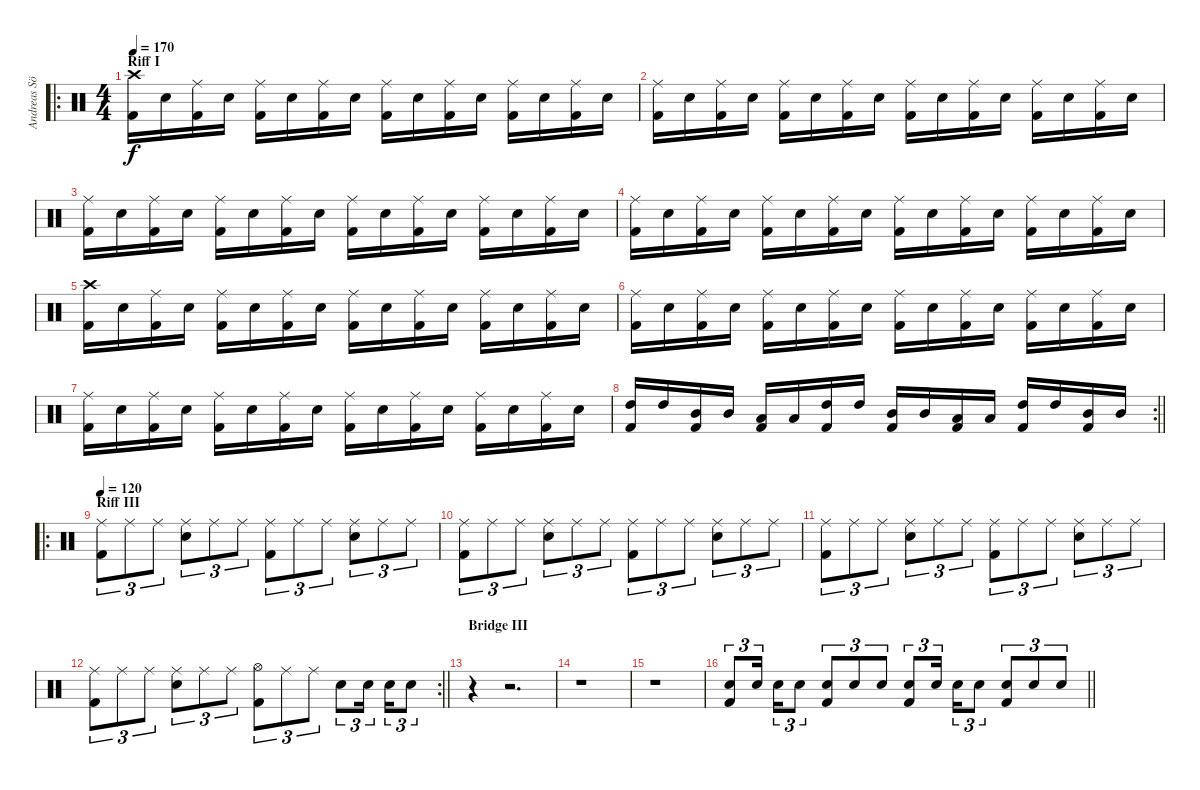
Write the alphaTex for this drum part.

\track ("Andreas Söderlund" "Andreas Sö") {instrument percussion}
\staff {score}
\articulation defaults
\ro
\ts (4 4)
\section ("" "Riff I")
\tempo 170
\clef neutral
\ks c
("Crash high (hit)" "Kick (hit) 2").16{dy f} "Electric Snare (hit)".16 ("Ride (middle)" "Kick (hit) 2").16 "Electric Snare (hit)".16 ("Ride (middle)" "Kick (hit) 2").16 "Electric Snare (hit)".16 ("Ride (middle)" "Kick (hit) 2").16 "Electric Snare (hit)".16 ("Ride (middle)" "Kick (hit) 2").16 "Electric Snare (hit)".16 ("Ride (middle)" "Kick (hit) 2").16 "Electric Snare (hit)".16 ("Ride (middle)" "Kick (hit) 2").16 "Electric Snare (hit)".16 ("Ride (middle)" "Kick (hit) 2").16 "Electric Snare (hit)".16 |
("Ride (middle)" "Kick (hit) 2").16 "Electric Snare (hit)".16 ("Ride (middle)" "Kick (hit) 2").16 "Electric Snare (hit)".16 ("Ride (middle)" "Kick (hit) 2").16 "Electric Snare (hit)".16 ("Ride (middle)" "Kick (hit) 2").16 "Electric Snare (hit)".16 ("Ride (middle)" "Kick (hit) 2").16 "Electric Snare (hit)".16 ("Ride (middle)" "Kick (hit) 2").16 "Electric Snare (hit)".16 ("Ride (middle)" "Kick (hit) 2").16 "Electric Snare (hit)".16 ("Ride (middle)" "Kick (hit) 2").16 "Electric Snare (hit)".16 |
("Ride (middle)" "Kick (hit) 2").16 "Electric Snare (hit)".16 ("Ride (middle)" "Kick (hit) 2").16 "Electric Snare (hit)".16 ("Ride (middle)" "Kick (hit) 2").16 "Electric Snare (hit)".16 ("Ride (middle)" "Kick (hit) 2").16 "Electric Snare (hit)".16 ("Ride (middle)" "Kick (hit) 2").16 "Electric Snare (hit)".16 ("Ride (middle)" "Kick (hit) 2").16 "Electric Snare (hit)".16 ("Ride (middle)" "Kick (hit) 2").16 "Electric Snare (hit)".16 ("Ride (middle)" "Kick (hit) 2").16 "Electric Snare (hit)".16 |
("Ride (middle)" "Kick (hit) 2").16 "Electric Snare (hit)".16 ("Ride (middle)" "Kick (hit) 2").16 "Electric Snare (hit)".16 ("Ride (middle)" "Kick (hit) 2").16 "Electric Snare (hit)".16 ("Ride (middle)" "Kick (hit) 2").16 "Electric Snare (hit)".16 ("Ride (middle)" "Kick (hit) 2").16 "Electric Snare (hit)".16 ("Ride (middle)" "Kick (hit) 2").16 "Electric Snare (hit)".16 ("Ride (middle)" "Kick (hit) 2").16 "Electric Snare (hit)".16 ("Ride (middle)" "Kick (hit) 2").16 "Electric Snare (hit)".16 |
("Crash high (hit)" "Kick (hit) 2").16 "Electric Snare (hit)".16 ("Ride (middle)" "Kick (hit) 2").16 "Electric Snare (hit)".16 ("Ride (middle)" "Kick (hit) 2").16 "Electric Snare (hit)".16 ("Ride (middle)" "Kick (hit) 2").16 "Electric Snare (hit)".16 ("Ride (middle)" "Kick (hit) 2").16 "Electric Snare (hit)".16 ("Ride (middle)" "Kick (hit) 2").16 "Electric Snare (hit)".16 ("Ride (middle)" "Kick (hit) 2").16 "Electric Snare (hit)".16 ("Ride (middle)" "Kick (hit) 2").16 "Electric Snare (hit)".16 |
("Ride (middle)" "Kick (hit) 2").16 "Electric Snare (hit)".16 ("Ride (middle)" "Kick (hit) 2").16 "Electric Snare (hit)".16 ("Ride (middle)" "Kick (hit) 2").16 "Electric Snare (hit)".16 ("Ride (middle)" "Kick (hit) 2").16 "Electric Snare (hit)".16 ("Ride (middle)" "Kick (hit) 2").16 "Electric Snare (hit)".16 ("Ride (middle)" "Kick (hit) 2").16 "Electric Snare (hit)".16 ("Ride (middle)" "Kick (hit) 2").16 "Electric Snare (hit)".16 ("Ride (middle)" "Kick (hit) 2").16 "Electric Snare (hit)".16 |
("Ride (middle)" "Kick (hit) 2").16 "Electric Snare (hit)".16 ("Ride (middle)" "Kick (hit) 2").16 "Electric Snare (hit)".16 ("Ride (middle)" "Kick (hit) 2").16 "Electric Snare (hit)".16 ("Ride (middle)" "Kick (hit) 2").16 "Electric Snare (hit)".16 ("Ride (middle)" "Kick (hit) 2").16 "Electric Snare (hit)".16 ("Ride (middle)" "Kick (hit) 2").16 "Electric Snare (hit)".16 ("Ride (middle)" "Kick (hit) 2").16 "Electric Snare (hit)".16 ("Ride (middle)" "Kick (hit) 2").16 "Electric Snare (hit)".16 |
\rc 2
\barLineRight lightlight
("High Tom (hit)" "Kick (hit) 2").16 "High Tom (hit)".16 ("Mid Tom (hit)" "Kick (hit) 2").16 "Mid Tom (hit)".16 ("Low Tom (hit)" "Kick (hit) 2").16 "Low Tom (hit)".16 ("High Tom (hit)" "Kick (hit) 2").16 "High Tom (hit)".16 ("Mid Tom (hit)" "Kick (hit) 2").16 "Mid Tom (hit)".16 ("Low Tom (hit)" "Kick (hit) 2").16 "Low Tom (hit)".16 ("High Tom (hit)" "Kick (hit) 2").16 "High Tom (hit)".16 ("Mid Tom (hit)" "Kick (hit) 2").16 "Mid Tom (hit)".16 |
\ro
\section ("" "Riff III")
\tempo 120
("Ride (middle)" "Kick (hit) 2").8{tu (3 2)} "Ride (middle)".8{tu (3 2)} "Ride (middle)".8{tu (3 2)} ("Ride (middle)" "Electric Snare (hit)").8{tu (3 2)} "Ride (middle)".8{tu (3 2)} "Ride (middle)".8{tu (3 2)} ("Ride (middle)" "Kick (hit) 2").8{tu (3 2)} "Ride (middle)".8{tu (3 2)} "Ride (middle)".8{tu (3 2)} ("Ride (middle)" "Electric Snare (hit)").8{tu (3 2)} "Ride (middle)".8{tu (3 2)} "Ride (middle)".8{tu (3 2)} |
("Ride (middle)" "Kick (hit) 2").8{tu (3 2)} "Ride (middle)".8{tu (3 2)} "Ride (middle)".8{tu (3 2)} ("Ride (middle)" "Electric Snare (hit)").8{tu (3 2)} "Ride (middle)".8{tu (3 2)} "Ride (middle)".8{tu (3 2)} ("Ride (middle)" "Kick (hit) 2").8{tu (3 2)} "Ride (middle)".8{tu (3 2)} "Ride (middle)".8{tu (3 2)} ("Ride (middle)" "Electric Snare (hit)").8{tu (3 2)} "Ride (middle)".8{tu (3 2)} "Ride (middle)".8{tu (3 2)} |
("Ride (middle)" "Kick (hit) 2").8{tu (3 2)} "Ride (middle)".8{tu (3 2)} "Ride (middle)".8{tu (3 2)} ("Ride (middle)" "Electric Snare (hit)").8{tu (3 2)} "Ride (middle)".8{tu (3 2)} "Ride (middle)".8{tu (3 2)} ("Ride (middle)" "Kick (hit) 2").8{tu (3 2)} "Ride (middle)".8{tu (3 2)} "Ride (middle)".8{tu (3 2)} ("Ride (middle)" "Electric Snare (hit)").8{tu (3 2)} "Ride (middle)".8{tu (3 2)} "Ride (middle)".8{tu (3 2)} |
\rc 2
\barLineRight lightlight
("Ride (middle)" "Kick (hit) 2").8{tu (3 2)} "Ride (middle)".8{tu (3 2)} "Ride (middle)".8{tu (3 2)} ("Ride (middle)" "Electric Snare (hit)").8{tu (3 2)} "Ride (middle)".8{tu (3 2)} "Ride (middle)".8{tu (3 2)} ("Hi-Hat (open)" "Kick (hit) 2").8{tu (3 2)} "Ride (middle)".8{tu (3 2)} "Ride (middle)".8{tu (3 2)} "Electric Snare (hit)".8{tu (3 2)} "Electric Snare (hit)".16{tu (3 2) beam splitsecondary} "Electric Snare (hit)".16{tu (3 2)} "Electric Snare (hit)".8{tu (3 2)} |
\section ("" "Bridge III")
r.4 r.2{d} |
r.1 |
r.1 |
\barLineRight lightlight
("Electric Snare (hit)" "Kick (hit) 2").8{tu (3 2)} "Electric Snare (hit)".16{tu (3 2) beam splitsecondary} "Electric Snare (hit)".16{tu (3 2)} "Electric Snare (hit)".8{tu (3 2)} ("Electric Snare (hit)" "Kick (hit) 2").8{tu (3 2)} "Electric Snare (hit)".8{tu (3 2)} "Electric Snare (hit)".8{tu (3 2)} ("Electric Snare (hit)" "Kick (hit) 2").8{tu (3 2)} "Electric Snare (hit)".16{tu (3 2) beam splitsecondary} "Electric Snare (hit)".16{tu (3 2)} "Electric Snare (hit)".8{tu (3 2)} ("Electric Snare (hit)" "Kick (hit) 2").8{tu (3 2)} "Electric Snare (hit)".8{tu (3 2)} "Electric Snare (hit)".8{tu (3 2)}
